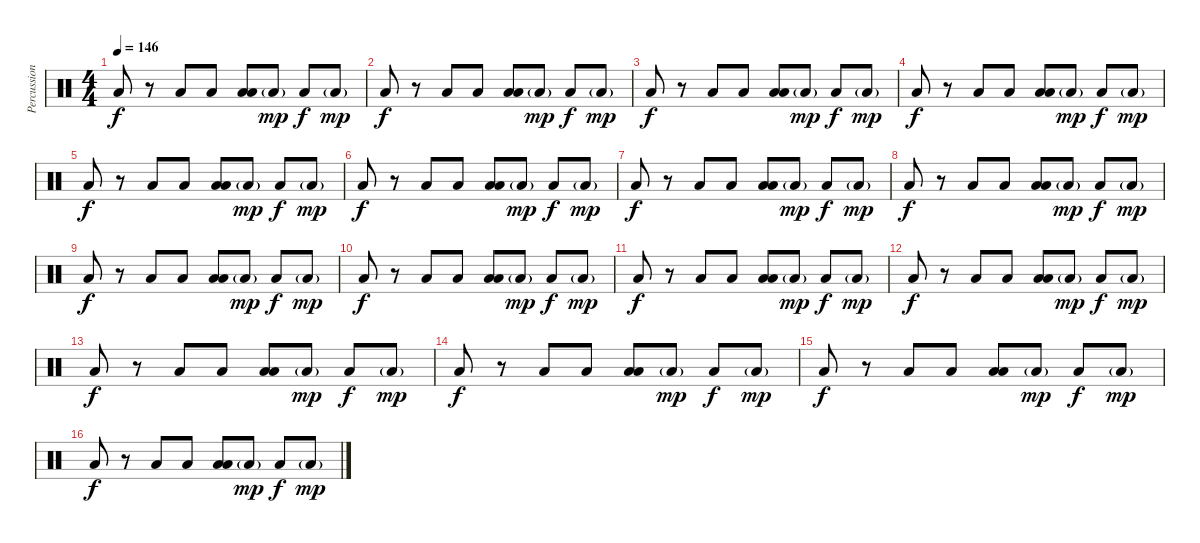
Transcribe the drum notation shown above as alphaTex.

\track ("Percussion" "Percussion") {instrument percussion}
\staff {score}
\articulation defaults
\ts (4 4)
\tempo 146
\clef neutral
\ks c "Low Tom (hit)".8{dy f}
r.8 "Low Tom (hit)".8 "Low Tom (hit)".8 ("Low Tom (hit)" "Low Floor Tom (hit)").8 "Low Floor Tom (hit)"{g}.8{dy mp} "Low Floor Tom (hit)".8{dy f} "Low Tom (hit)"{g}.8{dy mp} |
"Low Tom (hit)".8{dy f} r.8 "Low Tom (hit)".8 "Low Tom (hit)".8 ("Low Tom (hit)" "Low Floor Tom (hit)").8 "Low Floor Tom (hit)"{g}.8{dy mp} "Low Floor Tom (hit)".8{dy f} "Low Tom (hit)"{g}.8{dy mp} |
"Low Tom (hit)".8{dy f} r.8 "Low Tom (hit)".8 "Low Tom (hit)".8 ("Low Tom (hit)" "Low Floor Tom (hit)").8 "Low Floor Tom (hit)"{g}.8{dy mp} "Low Floor Tom (hit)".8{dy f} "Low Tom (hit)"{g}.8{dy mp} |
"Low Tom (hit)".8{dy f} r.8 "Low Tom (hit)".8 "Low Tom (hit)".8 ("Low Tom (hit)" "Low Floor Tom (hit)").8 "Low Floor Tom (hit)"{g}.8{dy mp} "Low Floor Tom (hit)".8{dy f} "Low Tom (hit)"{g}.8{dy mp} |
"Low Tom (hit)".8{dy f} r.8 "Low Tom (hit)".8 "Low Tom (hit)".8 ("Low Tom (hit)" "Low Floor Tom (hit)").8 "Low Floor Tom (hit)"{g}.8{dy mp} "Low Floor Tom (hit)".8{dy f} "Low Tom (hit)"{g}.8{dy mp} |
"Low Tom (hit)".8{dy f} r.8 "Low Tom (hit)".8 "Low Tom (hit)".8 ("Low Tom (hit)" "Low Floor Tom (hit)").8 "Low Floor Tom (hit)"{g}.8{dy mp} "Low Floor Tom (hit)".8{dy f} "Low Tom (hit)"{g}.8{dy mp} |
"Low Tom (hit)".8{dy f} r.8 "Low Tom (hit)".8 "Low Tom (hit)".8 ("Low Tom (hit)" "Low Floor Tom (hit)").8 "Low Floor Tom (hit)"{g}.8{dy mp} "Low Floor Tom (hit)".8{dy f} "Low Tom (hit)"{g}.8{dy mp} |
"Low Tom (hit)".8{dy f} r.8 "Low Tom (hit)".8 "Low Tom (hit)".8 ("Low Tom (hit)" "Low Floor Tom (hit)").8 "Low Floor Tom (hit)"{g}.8{dy mp} "Low Floor Tom (hit)".8{dy f} "Low Tom (hit)"{g}.8{dy mp} |
"Low Tom (hit)".8{dy f} r.8 "Low Tom (hit)".8 "Low Tom (hit)".8 ("Low Tom (hit)" "Low Floor Tom (hit)").8 "Low Floor Tom (hit)"{g}.8{dy mp} "Low Floor Tom (hit)".8{dy f} "Low Tom (hit)"{g}.8{dy mp} |
"Low Tom (hit)".8{dy f} r.8 "Low Tom (hit)".8 "Low Tom (hit)".8 ("Low Tom (hit)" "Low Floor Tom (hit)").8 "Low Floor Tom (hit)"{g}.8{dy mp} "Low Floor Tom (hit)".8{dy f} "Low Tom (hit)"{g}.8{dy mp} |
"Low Tom (hit)".8{dy f} r.8 "Low Tom (hit)".8 "Low Tom (hit)".8 ("Low Tom (hit)" "Low Floor Tom (hit)").8 "Low Floor Tom (hit)"{g}.8{dy mp} "Low Floor Tom (hit)".8{dy f} "Low Tom (hit)"{g}.8{dy mp} |
"Low Tom (hit)".8{dy f} r.8 "Low Tom (hit)".8 "Low Tom (hit)".8 ("Low Tom (hit)" "Low Floor Tom (hit)").8 "Low Floor Tom (hit)"{g}.8{dy mp} "Low Floor Tom (hit)".8{dy f} "Low Tom (hit)"{g}.8{dy mp} |
"Low Tom (hit)".8{dy f} r.8 "Low Tom (hit)".8 "Low Tom (hit)".8 ("Low Tom (hit)" "Low Floor Tom (hit)").8 "Low Floor Tom (hit)"{g}.8{dy mp} "Low Floor Tom (hit)".8{dy f} "Low Tom (hit)"{g}.8{dy mp} |
"Low Tom (hit)".8{dy f} r.8 "Low Tom (hit)".8 "Low Tom (hit)".8 ("Low Tom (hit)" "Low Floor Tom (hit)").8 "Low Floor Tom (hit)"{g}.8{dy mp} "Low Floor Tom (hit)".8{dy f} "Low Tom (hit)"{g}.8{dy mp} |
"Low Tom (hit)".8{dy f} r.8 "Low Tom (hit)".8 "Low Tom (hit)".8 ("Low Tom (hit)" "Low Floor Tom (hit)").8 "Low Floor Tom (hit)"{g}.8{dy mp} "Low Floor Tom (hit)".8{dy f} "Low Tom (hit)"{g}.8{dy mp} |
"Low Tom (hit)".8{dy f} r.8 "Low Tom (hit)".8 "Low Tom (hit)".8 ("Low Tom (hit)" "Low Floor Tom (hit)").8 "Low Floor Tom (hit)"{g}.8{dy mp} "Low Floor Tom (hit)".8{dy f} "Low Tom (hit)"{g}.8{dy mp}
